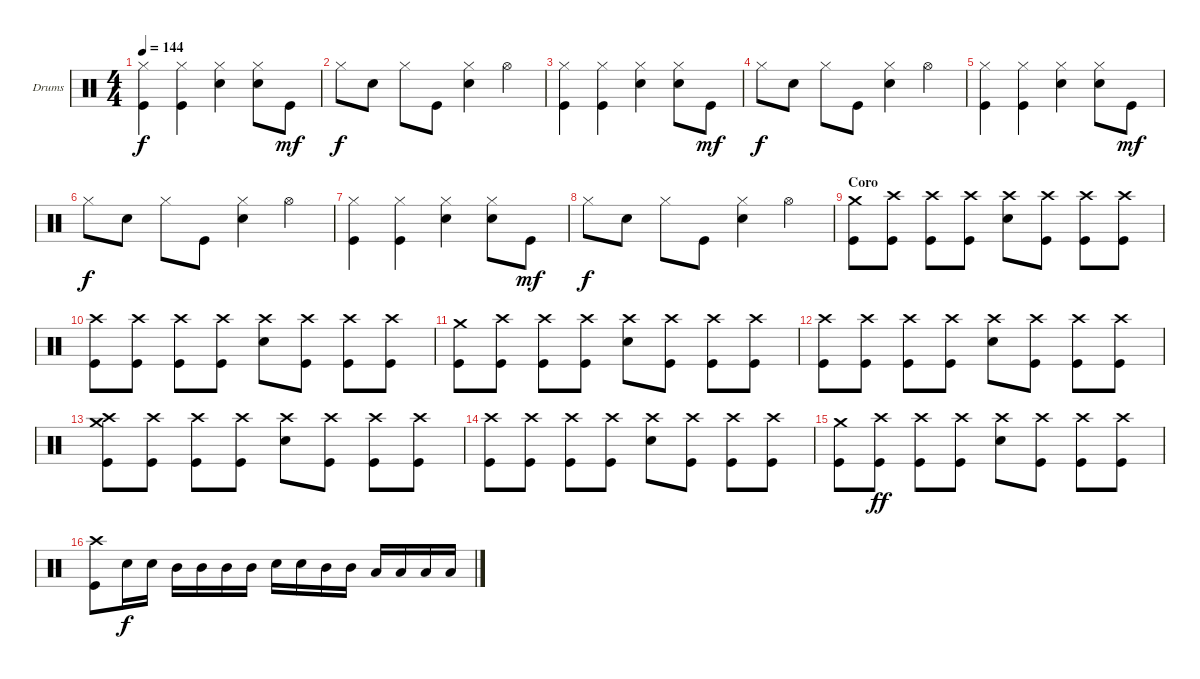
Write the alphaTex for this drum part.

\bracketExtendMode groupsimilarinstruments
\firstSystemTrackNameOrientation horizontal
\otherSystemsTrackNameOrientation horizontal
\track ("Drumkit" "Drums") {instrument percussion}
\staff {score}
\articulation defaults
\ts (4 4)
\tempo 144
\clef neutral
\ks c
("Hi-Hat (closed)" "Kick (hit)").4{dy f} ("Hi-Hat (closed)" "Kick (hit)").4 ("Hi-Hat (closed)" "Snare (hit) 2").4 ("Hi-Hat (closed)" "Snare (hit) 2").8 "Kick (hit)".8{dy mf} |
"Hi-Hat (closed)".8{dy f} "Snare (hit) 2".8 "Hi-Hat (closed)".8 "Kick (hit)".8 ("Hi-Hat (closed)" "Snare (hit) 2").4 "Hi-Hat (open)".4 |
("Hi-Hat (closed)" "Kick (hit)").4 ("Hi-Hat (closed)" "Kick (hit)").4 ("Hi-Hat (closed)" "Snare (hit) 2").4 ("Hi-Hat (closed)" "Snare (hit) 2").8 "Kick (hit)".8{dy mf} |
"Hi-Hat (closed)".8{dy f} "Snare (hit) 2".8 "Hi-Hat (closed)".8 "Kick (hit)".8 ("Hi-Hat (closed)" "Snare (hit) 2").4 "Hi-Hat (open)".4 |
("Hi-Hat (closed)" "Kick (hit)").4 ("Hi-Hat (closed)" "Kick (hit)").4 ("Hi-Hat (closed)" "Snare (hit) 2").4 ("Hi-Hat (closed)" "Snare (hit) 2").8 "Kick (hit)".8{dy mf} |
"Hi-Hat (closed)".8{dy f} "Snare (hit) 2".8 "Hi-Hat (closed)".8 "Kick (hit)".8 ("Hi-Hat (closed)" "Snare (hit) 2").4 "Hi-Hat (open)".4 |
("Hi-Hat (closed)" "Kick (hit)").4 ("Hi-Hat (closed)" "Kick (hit)").4 ("Hi-Hat (closed)" "Snare (hit) 2").4 ("Hi-Hat (closed)" "Snare (hit) 2").8 "Kick (hit)".8{dy mf} |
"Hi-Hat (closed)".8{dy f} "Snare (hit) 2".8 "Hi-Hat (closed)".8 "Kick (hit)".8 ("Hi-Hat (closed)" "Snare (hit) 2").4 "Hi-Hat (open)".4 |
\section ("" "Coro")
("Crash medium (hit)" "Kick (hit)").8 ("Crash high (hit)" "Kick (hit)").8 ("Crash high (hit)" "Kick (hit)").8 ("Crash high (hit)" "Kick (hit)").8 ("Crash high (hit)" "Snare (hit) 2").8 ("Crash high (hit)" "Kick (hit)").8 ("Crash high (hit)" "Kick (hit)").8 ("Crash high (hit)" "Kick (hit)").8 |
("Crash high (hit)" "Kick (hit)").8 ("Crash high (hit)" "Kick (hit)").8 ("Crash high (hit)" "Kick (hit)").8 ("Crash high (hit)" "Kick (hit)").8 ("Crash high (hit)" "Snare (hit) 2").8 ("Crash high (hit)" "Kick (hit)").8 ("Crash high (hit)" "Kick (hit)").8 ("Crash high (hit)" "Kick (hit)").8 |
("Crash medium (hit)" "Kick (hit)").8 ("Crash high (hit)" "Kick (hit)").8 ("Crash high (hit)" "Kick (hit)").8 ("Crash high (hit)" "Kick (hit)").8 ("Crash high (hit)" "Snare (hit) 2").8 ("Crash high (hit)" "Kick (hit)").8 ("Crash high (hit)" "Kick (hit)").8 ("Crash high (hit)" "Kick (hit)").8 |
("Crash high (hit)" "Kick (hit)").8 ("Crash high (hit)" "Kick (hit)").8 ("Crash high (hit)" "Kick (hit)").8 ("Crash high (hit)" "Kick (hit)").8 ("Crash high (hit)" "Snare (hit) 2").8 ("Crash high (hit)" "Kick (hit)").8 ("Crash high (hit)" "Kick (hit)").8 ("Crash high (hit)" "Kick (hit)").8 |
("Crash medium (hit)" "Crash high (hit)" "Kick (hit)").8 ("Crash high (hit)" "Kick (hit)").8 ("Crash high (hit)" "Kick (hit)").8 ("Crash high (hit)" "Kick (hit)").8 ("Crash high (hit)" "Snare (hit) 2").8 ("Crash high (hit)" "Kick (hit)").8 ("Crash high (hit)" "Kick (hit)").8 ("Crash high (hit)" "Kick (hit)").8 |
("Crash high (hit)" "Kick (hit)").8 ("Crash high (hit)" "Kick (hit)").8 ("Crash high (hit)" "Kick (hit)").8 ("Crash high (hit)" "Kick (hit)").8 ("Crash high (hit)" "Snare (hit) 2").8 ("Crash high (hit)" "Kick (hit)").8 ("Crash high (hit)" "Kick (hit)").8 ("Crash high (hit)" "Kick (hit)").8 |
("Crash medium (hit)" "Kick (hit)").8 ("Crash high (hit)" "Kick (hit)").8{dy ff} ("Crash high (hit)" "Kick (hit)").8 ("Crash high (hit)" "Kick (hit)").8 ("Crash high (hit)" "Snare (hit) 2").8 ("Crash high (hit)" "Kick (hit)").8 ("Crash high (hit)" "Kick (hit)").8 ("Crash high (hit)" "Kick (hit)").8 |
("Crash high (hit)" "Kick (hit)").8 "Snare (hit) 2".16{dy f} "Snare (hit) 2".16 "Mid Tom (hit)".16 "Mid Tom (hit)".16 "Mid Tom (hit)".16 "Mid Tom (hit)".16 "Snare (hit) 2".16 "Snare (hit) 2".16 "Mid Tom (hit)".16 "Mid Tom (hit)".16 "Low Tom (hit)".16 "Low Tom (hit)".16 "Low Tom (hit)".16 "Low Tom (hit)".16
